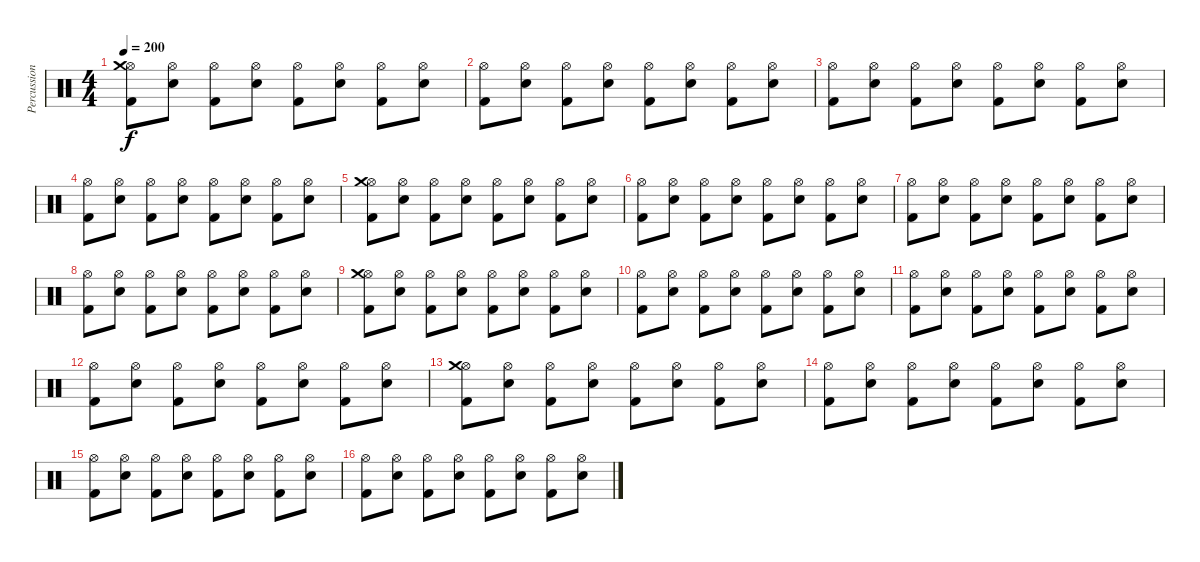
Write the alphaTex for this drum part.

\track ("Percussion" "Percussion") {instrument percussion}
\staff {score}
\articulation defaults
\ts (4 4)
\tempo 200
\clef neutral
\ks c
("Kick (hit) 2" "Hi-Hat (open)" "Crash medium (hit)").8{dy f} ("Electric Snare (hit)" "Hi-Hat (open)").8 ("Kick (hit) 2" "Hi-Hat (open)").8 ("Electric Snare (hit)" "Hi-Hat (open)").8 ("Kick (hit) 2" "Hi-Hat (open)").8 ("Electric Snare (hit)" "Hi-Hat (open)").8 ("Kick (hit) 2" "Hi-Hat (open)").8 ("Electric Snare (hit)" "Hi-Hat (open)").8 |
("Kick (hit) 2" "Hi-Hat (open)").8 ("Electric Snare (hit)" "Hi-Hat (open)").8 ("Kick (hit) 2" "Hi-Hat (open)").8 ("Electric Snare (hit)" "Hi-Hat (open)").8 ("Kick (hit) 2" "Hi-Hat (open)").8 ("Electric Snare (hit)" "Hi-Hat (open)").8 ("Kick (hit) 2" "Hi-Hat (open)").8 ("Electric Snare (hit)" "Hi-Hat (open)").8 |
("Kick (hit) 2" "Hi-Hat (open)").8 ("Electric Snare (hit)" "Hi-Hat (open)").8 ("Kick (hit) 2" "Hi-Hat (open)").8 ("Electric Snare (hit)" "Hi-Hat (open)").8 ("Kick (hit) 2" "Hi-Hat (open)").8 ("Electric Snare (hit)" "Hi-Hat (open)").8 ("Kick (hit) 2" "Hi-Hat (open)").8 ("Electric Snare (hit)" "Hi-Hat (open)").8 |
("Kick (hit) 2" "Hi-Hat (open)").8 ("Electric Snare (hit)" "Hi-Hat (open)").8 ("Kick (hit) 2" "Hi-Hat (open)").8 ("Electric Snare (hit)" "Hi-Hat (open)").8 ("Kick (hit) 2" "Hi-Hat (open)").8 ("Electric Snare (hit)" "Hi-Hat (open)").8 ("Kick (hit) 2" "Hi-Hat (open)").8 ("Electric Snare (hit)" "Hi-Hat (open)").8 |
("Kick (hit) 2" "Hi-Hat (open)" "Crash medium (hit)").8 ("Electric Snare (hit)" "Hi-Hat (open)").8 ("Kick (hit) 2" "Hi-Hat (open)").8 ("Electric Snare (hit)" "Hi-Hat (open)").8 ("Kick (hit) 2" "Hi-Hat (open)").8 ("Electric Snare (hit)" "Hi-Hat (open)").8 ("Kick (hit) 2" "Hi-Hat (open)").8 ("Electric Snare (hit)" "Hi-Hat (open)").8 |
("Kick (hit) 2" "Hi-Hat (open)").8 ("Electric Snare (hit)" "Hi-Hat (open)").8 ("Kick (hit) 2" "Hi-Hat (open)").8 ("Electric Snare (hit)" "Hi-Hat (open)").8 ("Kick (hit) 2" "Hi-Hat (open)").8 ("Electric Snare (hit)" "Hi-Hat (open)").8 ("Kick (hit) 2" "Hi-Hat (open)").8 ("Electric Snare (hit)" "Hi-Hat (open)").8 |
("Kick (hit) 2" "Hi-Hat (open)").8 ("Electric Snare (hit)" "Hi-Hat (open)").8 ("Kick (hit) 2" "Hi-Hat (open)").8 ("Electric Snare (hit)" "Hi-Hat (open)").8 ("Kick (hit) 2" "Hi-Hat (open)").8 ("Electric Snare (hit)" "Hi-Hat (open)").8 ("Kick (hit) 2" "Hi-Hat (open)").8 ("Electric Snare (hit)" "Hi-Hat (open)").8 |
("Kick (hit) 2" "Hi-Hat (open)").8 ("Electric Snare (hit)" "Hi-Hat (open)").8 ("Kick (hit) 2" "Hi-Hat (open)").8 ("Electric Snare (hit)" "Hi-Hat (open)").8 ("Kick (hit) 2" "Hi-Hat (open)").8 ("Electric Snare (hit)" "Hi-Hat (open)").8 ("Kick (hit) 2" "Hi-Hat (open)").8 ("Electric Snare (hit)" "Hi-Hat (open)").8 |
("Kick (hit) 2" "Hi-Hat (open)" "Crash medium (hit)").8 ("Electric Snare (hit)" "Hi-Hat (open)").8 ("Kick (hit) 2" "Hi-Hat (open)").8 ("Electric Snare (hit)" "Hi-Hat (open)").8 ("Kick (hit) 2" "Hi-Hat (open)").8 ("Electric Snare (hit)" "Hi-Hat (open)").8 ("Kick (hit) 2" "Hi-Hat (open)").8 ("Electric Snare (hit)" "Hi-Hat (open)").8 |
("Kick (hit) 2" "Hi-Hat (open)").8 ("Electric Snare (hit)" "Hi-Hat (open)").8 ("Kick (hit) 2" "Hi-Hat (open)").8 ("Electric Snare (hit)" "Hi-Hat (open)").8 ("Kick (hit) 2" "Hi-Hat (open)").8 ("Electric Snare (hit)" "Hi-Hat (open)").8 ("Kick (hit) 2" "Hi-Hat (open)").8 ("Electric Snare (hit)" "Hi-Hat (open)").8 |
("Kick (hit) 2" "Hi-Hat (open)").8 ("Electric Snare (hit)" "Hi-Hat (open)").8 ("Kick (hit) 2" "Hi-Hat (open)").8 ("Electric Snare (hit)" "Hi-Hat (open)").8 ("Kick (hit) 2" "Hi-Hat (open)").8 ("Electric Snare (hit)" "Hi-Hat (open)").8 ("Kick (hit) 2" "Hi-Hat (open)").8 ("Electric Snare (hit)" "Hi-Hat (open)").8 |
("Kick (hit) 2" "Hi-Hat (open)").8 ("Electric Snare (hit)" "Hi-Hat (open)").8 ("Kick (hit) 2" "Hi-Hat (open)").8 ("Electric Snare (hit)" "Hi-Hat (open)").8 ("Kick (hit) 2" "Hi-Hat (open)").8 ("Electric Snare (hit)" "Hi-Hat (open)").8 ("Kick (hit) 2" "Hi-Hat (open)").8 ("Electric Snare (hit)" "Hi-Hat (open)").8 |
("Kick (hit) 2" "Hi-Hat (open)" "Crash medium (hit)").8 ("Electric Snare (hit)" "Hi-Hat (open)").8 ("Kick (hit) 2" "Hi-Hat (open)").8 ("Electric Snare (hit)" "Hi-Hat (open)").8 ("Kick (hit) 2" "Hi-Hat (open)").8 ("Electric Snare (hit)" "Hi-Hat (open)").8 ("Kick (hit) 2" "Hi-Hat (open)").8 ("Electric Snare (hit)" "Hi-Hat (open)").8 |
("Kick (hit) 2" "Hi-Hat (open)").8 ("Electric Snare (hit)" "Hi-Hat (open)").8 ("Kick (hit) 2" "Hi-Hat (open)").8 ("Electric Snare (hit)" "Hi-Hat (open)").8 ("Kick (hit) 2" "Hi-Hat (open)").8 ("Electric Snare (hit)" "Hi-Hat (open)").8 ("Kick (hit) 2" "Hi-Hat (open)").8 ("Electric Snare (hit)" "Hi-Hat (open)").8 |
("Kick (hit) 2" "Hi-Hat (open)").8 ("Electric Snare (hit)" "Hi-Hat (open)").8 ("Kick (hit) 2" "Hi-Hat (open)").8 ("Electric Snare (hit)" "Hi-Hat (open)").8 ("Kick (hit) 2" "Hi-Hat (open)").8 ("Electric Snare (hit)" "Hi-Hat (open)").8 ("Kick (hit) 2" "Hi-Hat (open)").8 ("Electric Snare (hit)" "Hi-Hat (open)").8 |
("Kick (hit) 2" "Hi-Hat (open)").8 ("Electric Snare (hit)" "Hi-Hat (open)").8 ("Kick (hit) 2" "Hi-Hat (open)").8 ("Electric Snare (hit)" "Hi-Hat (open)").8 ("Kick (hit) 2" "Hi-Hat (open)").8 ("Electric Snare (hit)" "Hi-Hat (open)").8 ("Kick (hit) 2" "Hi-Hat (open)").8 ("Electric Snare (hit)" "Hi-Hat (open)").8
